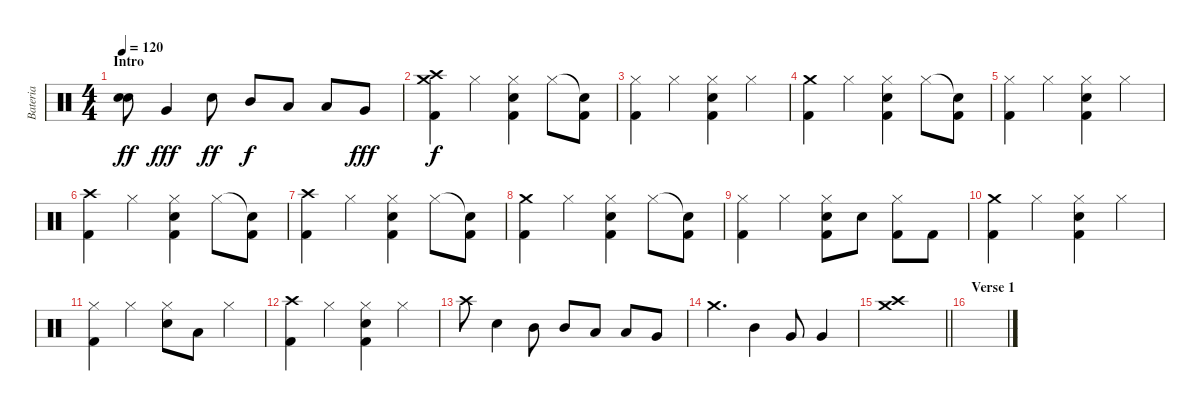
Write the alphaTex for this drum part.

\track ("Bateria" "Bateria") {instrument percussion}
\staff {score}
\articulation defaults
\ts (4 4)
\section ("" "Intro")
\tempo 120
\clef neutral
\ks c
("Electric Snare (hit)" "Electric Snare (hit)").8{dy ff} "Very Low Tom (hit)".4{dy fff balance 4} "Electric Snare (hit)".8{dy ff balance 8} "Mid Tom (hit)".8{dy f balance 9} "Low Tom (hit)".8 "Low Tom (hit)".8 "Very Low Tom (hit)".8{dy fff balance 4} |
("Crash medium (hit)" "Crash high (hit)" "Kick (hit) 2").4{dy f balance 8} "Hi-Hat (closed)".4 ("Hi-Hat (closed)" "Electric Snare (hit)" "Kick (hit) 2").4 "Hi-Hat (closed)".8 ("Snare (hit)"{t} "Kick (hit) 2").8 |
("Hi-Hat (closed)" "Kick (hit) 2").4 "Hi-Hat (closed)".4 ("Hi-Hat (closed)" "Electric Snare (hit)" "Kick (hit) 2").4 "Hi-Hat (closed)".4 |
("Crash medium (hit)" "Kick (hit) 2").4 "Hi-Hat (closed)".4 ("Hi-Hat (closed)" "Electric Snare (hit)" "Kick (hit) 2").4 "Hi-Hat (closed)".8 ("Snare (hit)"{t} "Kick (hit) 2").8 |
("Hi-Hat (closed)" "Kick (hit) 2").4 "Hi-Hat (closed)".4 ("Hi-Hat (closed)" "Electric Snare (hit)" "Kick (hit) 2").4 "Hi-Hat (closed)".4 |
("Crash high (hit)" "Kick (hit) 2").4 "Hi-Hat (closed)".4 ("Hi-Hat (closed)" "Electric Snare (hit)" "Kick (hit) 2").4 "Hi-Hat (closed)".8 ("Snare (hit)"{t} "Kick (hit) 2").8 |
("Crash high (hit)" "Kick (hit) 2").4 "Hi-Hat (closed)".4 ("Hi-Hat (closed)" "Electric Snare (hit)" "Kick (hit) 2").4 "Hi-Hat (closed)".8 ("Snare (hit)"{t} "Kick (hit) 2").8 |
("Crash medium (hit)" "Kick (hit) 2").4 "Hi-Hat (closed)".4 ("Hi-Hat (closed)" "Electric Snare (hit)" "Kick (hit) 2").4 "Hi-Hat (closed)".8 ("Snare (hit)"{t} "Kick (hit) 2").8 |
("Hi-Hat (closed)" "Kick (hit) 2").4 "Hi-Hat (closed)".4 ("Hi-Hat (closed)" "Electric Snare (hit)" "Kick (hit) 2").8 "Electric Snare (hit)".8 ("Hi-Hat (closed)" "Kick (hit) 2").8 "Kick (hit) 2".8 |
("Crash medium (hit)" "Kick (hit) 2").4 "Hi-Hat (closed)".4 ("Hi-Hat (closed)" "Electric Snare (hit)" "Kick (hit) 2").4 "Hi-Hat (closed)".4 |
("Hi-Hat (closed)" "Kick (hit) 2").4 "Hi-Hat (closed)".4 ("Hi-Hat (closed)" "Electric Snare (hit)").8 "Low Tom (hit)".8 "Hi-Hat (closed)".4 |
("Crash high (hit)" "Kick (hit) 2").4 "Hi-Hat (closed)".4 ("Hi-Hat (closed)" "Electric Snare (hit)" "Kick (hit) 2").4 "Hi-Hat (closed)".4 |
"Crash high (hit)".8 "Electric Snare (hit)".4 "Mid Tom (hit)".8{balance 10} "Mid Tom (hit)".8 "Low Tom (hit)".8{balance 5} "Low Tom (hit)".8 "Very Low Tom (hit)".8 |
"Crash medium (hit)".4{d balance 8} "Mid Tom (hit)".4{balance 10} "Very Low Tom (hit)".8{balance 5} "Very Low Tom (hit)".4 |
\barLineRight lightlight
("Crash medium (hit)" "Crash high (hit)").1{balance 8} |
\section ("" "Verse 1")
